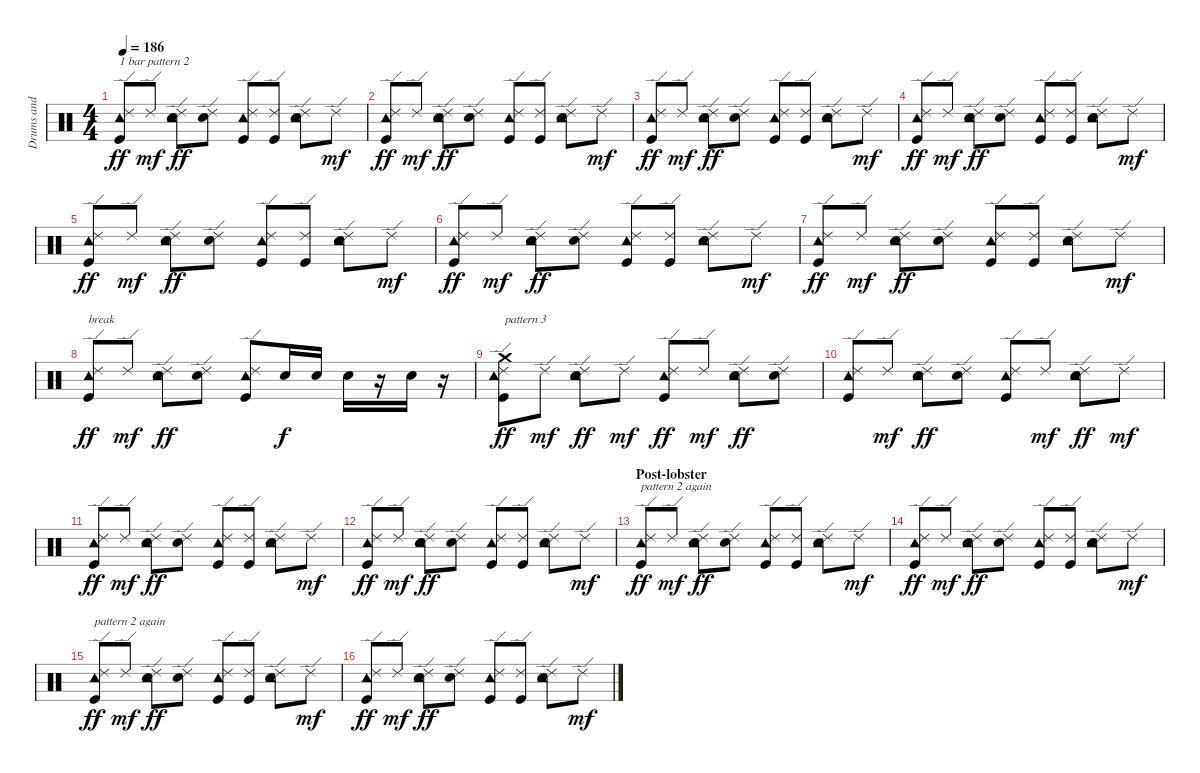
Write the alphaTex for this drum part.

\track ("Drums and Percs" "Drums and ") {instrument percussion}
\staff {score}
\articulation defaults
\ts (4 4)
\tempo 186
\clef neutral
\ks c
("Ride (edge) 2" "Tambourine (hit)" "Kick (hit)").8{txt "1 bar pattern 2" dy ff} "Ride (edge) 2".8{dy mf} ("Ride (edge) 2" "Tambourine (hit)" "Electric Snare (hit)").8{dy ff} ("Ride (edge) 2" "Electric Snare (hit)").8 ("Ride (edge) 2" "Tambourine (hit)" "Kick (hit)").8 ("Ride (edge) 2" "Kick (hit)").8 ("Ride (edge) 2" "Tambourine (hit)" "Electric Snare (hit)").8 "Ride (edge) 2".8{dy mf} |
("Ride (edge) 2" "Tambourine (hit)" "Kick (hit)").8{dy ff} "Ride (edge) 2".8{dy mf} ("Ride (edge) 2" "Tambourine (hit)" "Electric Snare (hit)").8{dy ff} ("Ride (edge) 2" "Electric Snare (hit)").8 ("Ride (edge) 2" "Tambourine (hit)" "Kick (hit)").8 ("Ride (edge) 2" "Kick (hit)").8 ("Ride (edge) 2" "Tambourine (hit)" "Electric Snare (hit)").8 "Ride (edge) 2".8{dy mf} |
("Ride (edge) 2" "Tambourine (hit)" "Kick (hit)").8{dy ff} "Ride (edge) 2".8{dy mf} ("Ride (edge) 2" "Tambourine (hit)" "Electric Snare (hit)").8{dy ff} ("Ride (edge) 2" "Electric Snare (hit)").8 ("Ride (edge) 2" "Tambourine (hit)" "Kick (hit)").8 ("Ride (edge) 2" "Kick (hit)").8 ("Ride (edge) 2" "Tambourine (hit)" "Electric Snare (hit)").8 "Ride (edge) 2".8{dy mf} |
("Ride (edge) 2" "Tambourine (hit)" "Kick (hit)").8{dy ff} "Ride (edge) 2".8{dy mf} ("Ride (edge) 2" "Tambourine (hit)" "Electric Snare (hit)").8{dy ff} ("Ride (edge) 2" "Electric Snare (hit)").8 ("Ride (edge) 2" "Tambourine (hit)" "Kick (hit)").8 ("Ride (edge) 2" "Kick (hit)").8 ("Ride (edge) 2" "Tambourine (hit)" "Electric Snare (hit)").8 "Ride (edge) 2".8{dy mf} |
("Ride (edge) 2" "Tambourine (hit)" "Kick (hit)").8{dy ff} "Ride (edge) 2".8{dy mf} ("Ride (edge) 2" "Tambourine (hit)" "Electric Snare (hit)").8{dy ff} ("Ride (edge) 2" "Electric Snare (hit)").8 ("Ride (edge) 2" "Tambourine (hit)" "Kick (hit)").8 ("Ride (edge) 2" "Kick (hit)").8 ("Ride (edge) 2" "Tambourine (hit)" "Electric Snare (hit)").8 "Ride (edge) 2".8{dy mf} |
("Ride (edge) 2" "Tambourine (hit)" "Kick (hit)").8{dy ff} "Ride (edge) 2".8{dy mf} ("Ride (edge) 2" "Tambourine (hit)" "Electric Snare (hit)").8{dy ff} ("Ride (edge) 2" "Electric Snare (hit)").8 ("Ride (edge) 2" "Tambourine (hit)" "Kick (hit)").8 ("Ride (edge) 2" "Kick (hit)").8 ("Ride (edge) 2" "Tambourine (hit)" "Electric Snare (hit)").8 "Ride (edge) 2".8{dy mf} |
("Ride (edge) 2" "Tambourine (hit)" "Kick (hit)").8{dy ff} "Ride (edge) 2".8{dy mf} ("Ride (edge) 2" "Tambourine (hit)" "Electric Snare (hit)").8{dy ff} ("Ride (edge) 2" "Electric Snare (hit)").8 ("Ride (edge) 2" "Tambourine (hit)" "Kick (hit)").8 ("Ride (edge) 2" "Kick (hit)").8 ("Ride (edge) 2" "Tambourine (hit)" "Electric Snare (hit)").8 "Ride (edge) 2".8{dy mf} |
("Ride (edge) 2" "Tambourine (hit)" "Kick (hit)").8{txt "break" dy ff} "Ride (edge) 2".8{dy mf} ("Ride (edge) 2" "Tambourine (hit)" "Electric Snare (hit)").8{dy ff} ("Ride (edge) 2" "Electric Snare (hit)").8 ("Ride (edge) 2" "Tambourine (hit)" "Kick (hit)").8 "Electric Snare (hit)".16{dy f} "Electric Snare (hit)".16 "Electric Snare (hit)".16 r.16 "Electric Snare (hit)".16 r.16 |
("Ride (edge) 2" "Tambourine (hit)" "Crash medium (hit)" "Kick (hit)").8{txt "pattern 3" dy ff} "Ride (edge) 2".8{dy mf} ("Ride (edge) 2" "Tambourine (hit)" "Electric Snare (hit)").8{dy ff} "Ride (edge) 2".8{dy mf} ("Ride (edge) 2" "Tambourine (hit)" "Kick (hit)").8{dy ff} "Ride (edge) 2".8{dy mf} ("Ride (edge) 2" "Tambourine (hit)" "Electric Snare (hit)").8{dy ff} ("Ride (edge) 2" "Electric Snare (hit)").8 |
("Ride (edge) 2" "Tambourine (hit)" "Kick (hit)").8 "Ride (edge) 2".8{dy mf} ("Ride (edge) 2" "Tambourine (hit)" "Electric Snare (hit)").8{dy ff} ("Ride (edge) 2" "Electric Snare (hit)").8 ("Ride (edge) 2" "Tambourine (hit)" "Kick (hit)").8 "Ride (edge) 2".8{dy mf} ("Ride (edge) 2" "Tambourine (hit)" "Electric Snare (hit)").8{dy ff} "Ride (edge) 2".8{dy mf} |
("Ride (edge) 2" "Tambourine (hit)" "Kick (hit)").8{dy ff} "Ride (edge) 2".8{dy mf} ("Ride (edge) 2" "Tambourine (hit)" "Electric Snare (hit)").8{dy ff} ("Ride (edge) 2" "Electric Snare (hit)").8 ("Ride (edge) 2" "Tambourine (hit)" "Kick (hit)").8 ("Ride (edge) 2" "Kick (hit)").8 ("Ride (edge) 2" "Tambourine (hit)" "Electric Snare (hit)").8 "Ride (edge) 2".8{dy mf} |
("Ride (edge) 2" "Tambourine (hit)" "Kick (hit)").8{dy ff} "Ride (edge) 2".8{dy mf} ("Ride (edge) 2" "Tambourine (hit)" "Electric Snare (hit)").8{dy ff} ("Ride (edge) 2" "Electric Snare (hit)").8 ("Ride (edge) 2" "Tambourine (hit)" "Kick (hit)").8 ("Ride (edge) 2" "Kick (hit)").8 ("Ride (edge) 2" "Tambourine (hit)" "Electric Snare (hit)").8 "Ride (edge) 2".8{dy mf} |
\section ("" "Post-lobster")
("Ride (edge) 2" "Tambourine (hit)" "Kick (hit)").8{txt "pattern 2 again" dy ff} "Ride (edge) 2".8{dy mf} ("Ride (edge) 2" "Tambourine (hit)" "Electric Snare (hit)").8{dy ff} ("Ride (edge) 2" "Electric Snare (hit)").8 ("Ride (edge) 2" "Tambourine (hit)" "Kick (hit)").8 ("Ride (edge) 2" "Kick (hit)").8 ("Ride (edge) 2" "Tambourine (hit)" "Electric Snare (hit)").8 "Ride (edge) 2".8{dy mf} |
("Ride (edge) 2" "Tambourine (hit)" "Kick (hit)").8{dy ff} "Ride (edge) 2".8{dy mf} ("Ride (edge) 2" "Tambourine (hit)" "Electric Snare (hit)").8{dy ff} ("Ride (edge) 2" "Electric Snare (hit)").8 ("Ride (edge) 2" "Tambourine (hit)" "Kick (hit)").8 ("Ride (edge) 2" "Kick (hit)").8 ("Ride (edge) 2" "Tambourine (hit)" "Electric Snare (hit)").8 "Ride (edge) 2".8{dy mf} |
("Ride (edge) 2" "Tambourine (hit)" "Kick (hit)").8{txt "pattern 2 again" dy ff} "Ride (edge) 2".8{dy mf} ("Ride (edge) 2" "Tambourine (hit)" "Electric Snare (hit)").8{dy ff} ("Ride (edge) 2" "Electric Snare (hit)").8 ("Ride (edge) 2" "Tambourine (hit)" "Kick (hit)").8 ("Ride (edge) 2" "Kick (hit)").8 ("Ride (edge) 2" "Tambourine (hit)" "Electric Snare (hit)").8 "Ride (edge) 2".8{dy mf} |
("Ride (edge) 2" "Tambourine (hit)" "Kick (hit)").8{dy ff} "Ride (edge) 2".8{dy mf} ("Ride (edge) 2" "Tambourine (hit)" "Electric Snare (hit)").8{dy ff} ("Ride (edge) 2" "Electric Snare (hit)").8 ("Ride (edge) 2" "Tambourine (hit)" "Kick (hit)").8 ("Ride (edge) 2" "Kick (hit)").8 ("Ride (edge) 2" "Tambourine (hit)" "Electric Snare (hit)").8 "Ride (edge) 2".8{dy mf}
